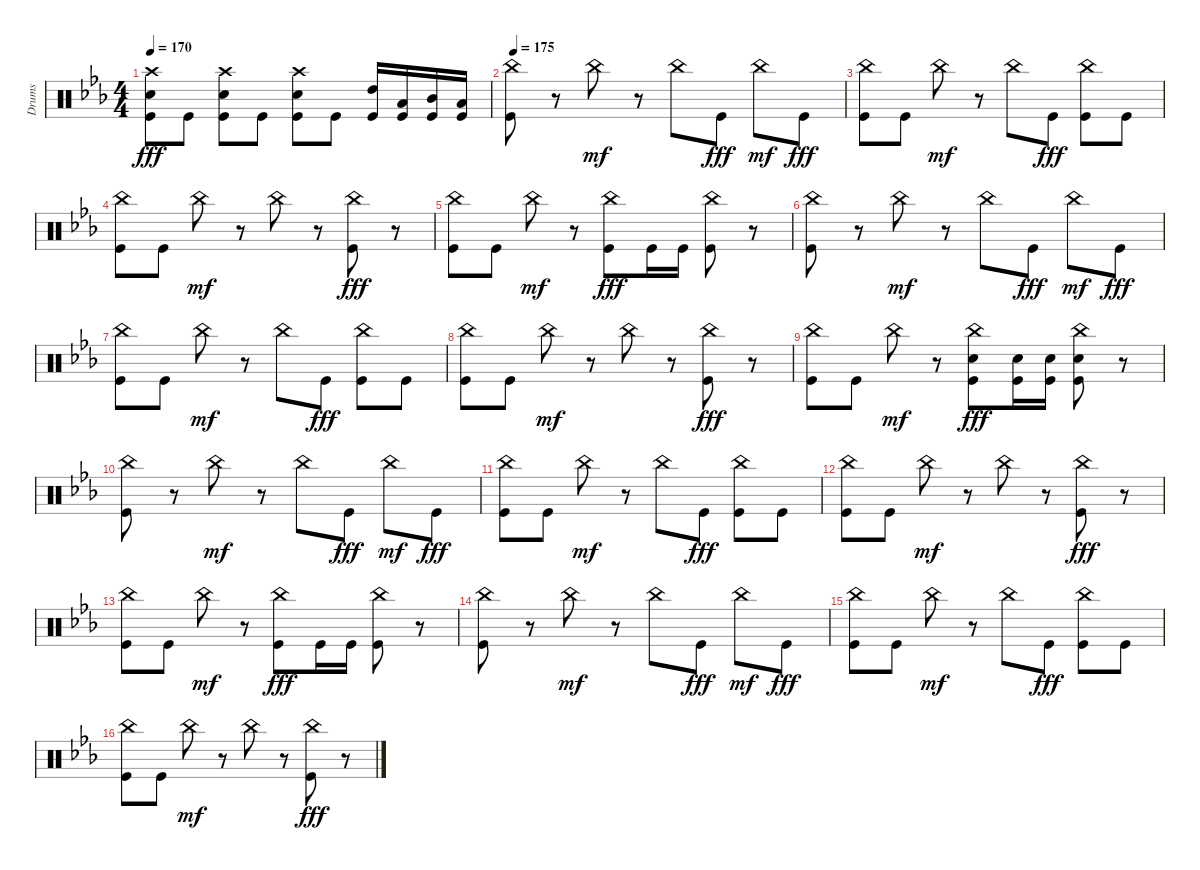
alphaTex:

\track ("Drums" "Drums") {instrument percussion}
\staff {score}
\articulation defaults
\ts (4 4)
\tempo 170
\clef neutral
\ks cminor
("Crash high (hit)" "Snare (hit) 2" "Kick (hit)").8{dy fff} "Kick (hit)".8 ("Crash high (hit)" "Snare (hit) 2" "Kick (hit)").8 "Kick (hit)".8 ("Crash high (hit)" "Snare (hit) 2" "Kick (hit)").8 "Kick (hit)".8 ("High Tom (hit)" "Kick (hit)").16 ("Low Tom (hit)" "Kick (hit)").16 ("Mid Tom (hit)" "Kick (hit)").16 ("Low Floor Tom (hit)" "Kick (hit)").16 |
\tempo 175
("China (hit)" "Kick (hit)").8 r.8 "China (hit)".8{dy mf} r.8 "China (hit)".8 "Kick (hit)".8{dy fff} "China (hit)".8{dy mf} "Kick (hit)".8{dy fff} |
("China (hit)" "Kick (hit)").8 "Kick (hit)".8 "China (hit)".8{dy mf} r.8 "China (hit)".8 "Kick (hit)".8{dy fff} ("China (hit)" "Kick (hit)").8 "Kick (hit)".8 |
("China (hit)" "Kick (hit)").8 "Kick (hit)".8 "China (hit)".8{dy mf} r.8 "China (hit)".8 r.8 ("China (hit)" "Kick (hit)").8{dy fff} r.8 |
("China (hit)" "Kick (hit)").8 "Kick (hit)".8 "China (hit)".8{dy mf} r.8 ("China (hit)" "Kick (hit)").8{dy fff} "Kick (hit)".16 "Kick (hit)".16 ("China (hit)" "Kick (hit)").8 r.8 |
("China (hit)" "Kick (hit)").8 r.8 "China (hit)".8{dy mf} r.8 "China (hit)".8 "Kick (hit)".8{dy fff} "China (hit)".8{dy mf} "Kick (hit)".8{dy fff} |
("China (hit)" "Kick (hit)").8 "Kick (hit)".8 "China (hit)".8{dy mf} r.8 "China (hit)".8 "Kick (hit)".8{dy fff} ("China (hit)" "Kick (hit)").8 "Kick (hit)".8 |
("China (hit)" "Kick (hit)").8 "Kick (hit)".8 "China (hit)".8{dy mf} r.8 "China (hit)".8 r.8 ("China (hit)" "Kick (hit)").8{dy fff} r.8 |
("China (hit)" "Kick (hit)").8 "Kick (hit)".8 "China (hit)".8{dy mf} r.8 ("China (hit)" "Snare (hit) 2" "Kick (hit)").8{dy fff} ("Snare (hit) 2" "Kick (hit)").16 ("Snare (hit) 2" "Kick (hit)").16 ("China (hit)" "Snare (hit) 2" "Kick (hit)").8 r.8 |
("China (hit)" "Kick (hit)").8 r.8 "China (hit)".8{dy mf} r.8 "China (hit)".8 "Kick (hit)".8{dy fff} "China (hit)".8{dy mf} "Kick (hit)".8{dy fff} |
("China (hit)" "Kick (hit)").8 "Kick (hit)".8 "China (hit)".8{dy mf} r.8 "China (hit)".8 "Kick (hit)".8{dy fff} ("China (hit)" "Kick (hit)").8 "Kick (hit)".8 |
("China (hit)" "Kick (hit)").8 "Kick (hit)".8 "China (hit)".8{dy mf} r.8 "China (hit)".8 r.8 ("China (hit)" "Kick (hit)").8{dy fff} r.8 |
("China (hit)" "Kick (hit)").8 "Kick (hit)".8 "China (hit)".8{dy mf} r.8 ("China (hit)" "Kick (hit)").8{dy fff} "Kick (hit)".16 "Kick (hit)".16 ("China (hit)" "Kick (hit)").8 r.8 |
("China (hit)" "Kick (hit)").8 r.8 "China (hit)".8{dy mf} r.8 "China (hit)".8 "Kick (hit)".8{dy fff} "China (hit)".8{dy mf} "Kick (hit)".8{dy fff} |
("China (hit)" "Kick (hit)").8 "Kick (hit)".8 "China (hit)".8{dy mf} r.8 "China (hit)".8 "Kick (hit)".8{dy fff} ("China (hit)" "Kick (hit)").8 "Kick (hit)".8 |
("China (hit)" "Kick (hit)").8 "Kick (hit)".8 "China (hit)".8{dy mf} r.8 "China (hit)".8 r.8 ("China (hit)" "Kick (hit)").8{dy fff} r.8
